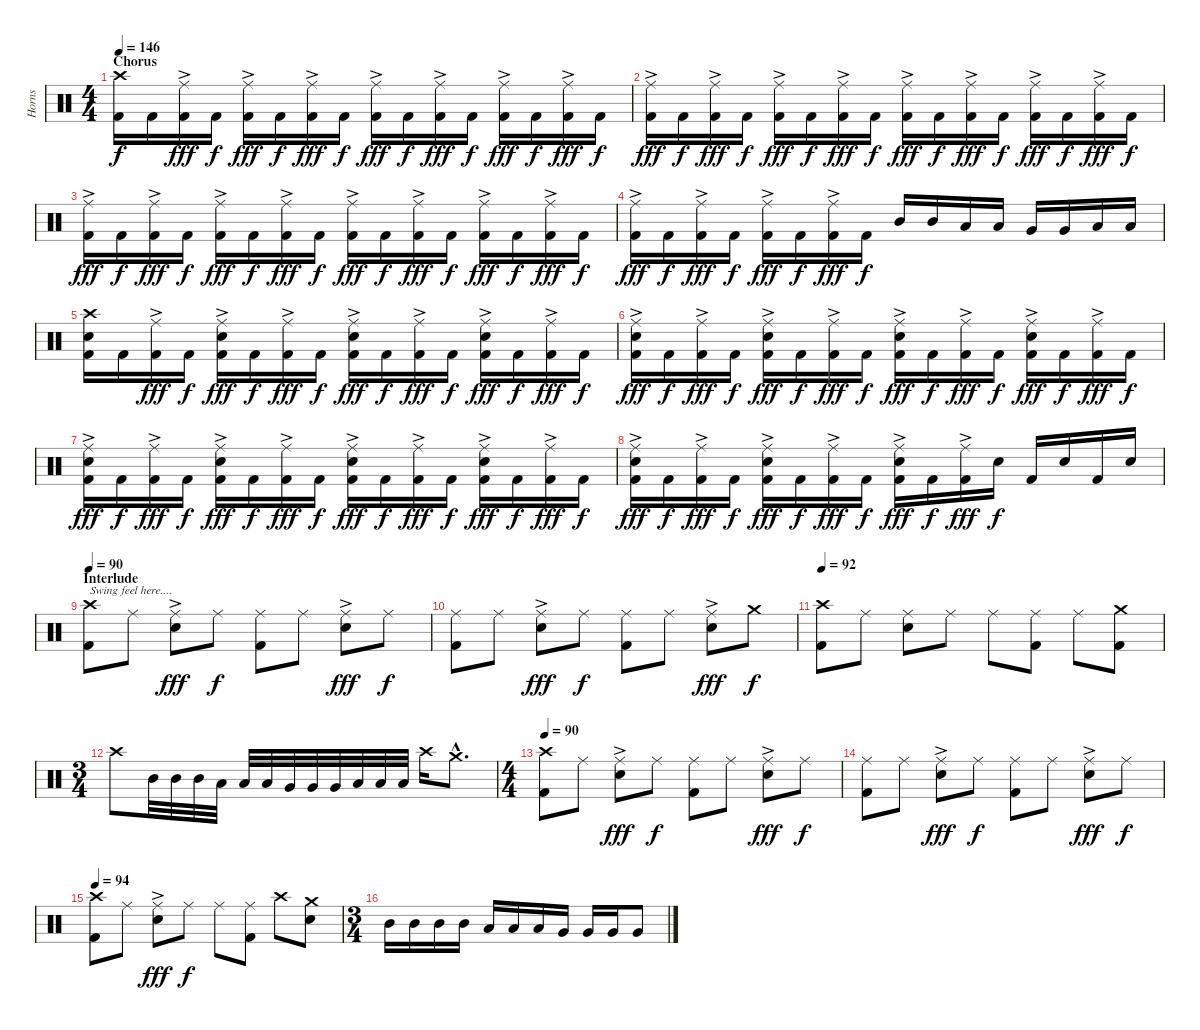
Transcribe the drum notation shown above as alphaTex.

\track ("Horns" "Horns") {instrument percussion}
\staff {score}
\articulation defaults
\ts (4 4)
\section ("" "Chorus")
\tempo 146
\clef neutral
\ks c
("Crash high (hit)" "Kick (hit) 2").16{dy f} "Kick (hit) 2".16 ("Ride (middle)"{ac} "Kick (hit) 2").16{dy fff} "Kick (hit) 2".16{dy f} ("Ride (middle)"{ac} "Kick (hit) 2").16{dy fff} "Kick (hit) 2".16{dy f} ("Ride (middle)"{ac} "Kick (hit) 2").16{dy fff} "Kick (hit) 2".16{dy f} ("Ride (middle)"{ac} "Kick (hit) 2").16{dy fff} "Kick (hit) 2".16{dy f} ("Ride (middle)"{ac} "Kick (hit) 2").16{dy fff} "Kick (hit) 2".16{dy f} ("Ride (middle)"{ac} "Kick (hit) 2").16{dy fff} "Kick (hit) 2".16{dy f} ("Ride (middle)"{ac} "Kick (hit) 2").16{dy fff} "Kick (hit) 2".16{dy f} |
("Ride (middle)"{ac} "Kick (hit) 2").16{dy fff} "Kick (hit) 2".16{dy f} ("Ride (middle)"{ac} "Kick (hit) 2").16{dy fff} "Kick (hit) 2".16{dy f} ("Ride (middle)"{ac} "Kick (hit) 2").16{dy fff} "Kick (hit) 2".16{dy f} ("Ride (middle)"{ac} "Kick (hit) 2").16{dy fff} "Kick (hit) 2".16{dy f} ("Ride (middle)"{ac} "Kick (hit) 2").16{dy fff} "Kick (hit) 2".16{dy f} ("Ride (middle)"{ac} "Kick (hit) 2").16{dy fff} "Kick (hit) 2".16{dy f} ("Ride (middle)"{ac} "Kick (hit) 2").16{dy fff} "Kick (hit) 2".16{dy f} ("Ride (middle)"{ac} "Kick (hit) 2").16{dy fff} "Kick (hit) 2".16{dy f} |
("Ride (middle)"{ac} "Kick (hit) 2").16{dy fff} "Kick (hit) 2".16{dy f} ("Ride (middle)"{ac} "Kick (hit) 2").16{dy fff} "Kick (hit) 2".16{dy f} ("Ride (middle)"{ac} "Kick (hit) 2").16{dy fff} "Kick (hit) 2".16{dy f} ("Ride (middle)"{ac} "Kick (hit) 2").16{dy fff} "Kick (hit) 2".16{dy f} ("Ride (middle)"{ac} "Kick (hit) 2").16{dy fff} "Kick (hit) 2".16{dy f} ("Ride (middle)"{ac} "Kick (hit) 2").16{dy fff} "Kick (hit) 2".16{dy f} ("Ride (middle)"{ac} "Kick (hit) 2").16{dy fff} "Kick (hit) 2".16{dy f} ("Ride (middle)"{ac} "Kick (hit) 2").16{dy fff} "Kick (hit) 2".16{dy f} |
("Ride (middle)"{ac} "Kick (hit) 2").16{dy fff} "Kick (hit) 2".16{dy f} ("Ride (middle)"{ac} "Kick (hit) 2").16{dy fff} "Kick (hit) 2".16{dy f} ("Ride (middle)"{ac} "Kick (hit) 2").16{dy fff} "Kick (hit) 2".16{dy f} ("Ride (middle)"{ac} "Kick (hit) 2").16{dy fff} "Kick (hit) 2".16{dy f} "Mid Tom (hit)".16 "Mid Tom (hit)".16 "Low Tom (hit)".16 "Low Tom (hit)".16 "Very Low Tom (hit)".16 "Very Low Tom (hit)".16 "Low Floor Tom (hit)".16 "Low Floor Tom (hit)".16 |
("Crash high (hit)" "Snare (hit) 2" "Kick (hit) 2").16 "Kick (hit) 2".16 ("Ride (middle)"{ac} "Kick (hit) 2").16{dy fff} "Kick (hit) 2".16{dy f} ("Ride (middle)"{ac} "Snare (hit) 2" "Kick (hit) 2").16{dy fff} "Kick (hit) 2".16{dy f} ("Ride (middle)"{ac} "Kick (hit) 2").16{dy fff} "Kick (hit) 2".16{dy f} ("Ride (middle)"{ac} "Snare (hit) 2" "Kick (hit) 2").16{dy fff} "Kick (hit) 2".16{dy f} ("Ride (middle)"{ac} "Kick (hit) 2").16{dy fff} "Kick (hit) 2".16{dy f} ("Ride (middle)"{ac} "Snare (hit) 2" "Kick (hit) 2").16{dy fff} "Kick (hit) 2".16{dy f} ("Ride (middle)"{ac} "Kick (hit) 2").16{dy fff} "Kick (hit) 2".16{dy f} |
("Ride (middle)"{ac} "Snare (hit) 2" "Kick (hit) 2").16{dy fff} "Kick (hit) 2".16{dy f} ("Ride (middle)"{ac} "Kick (hit) 2").16{dy fff} "Kick (hit) 2".16{dy f} ("Ride (middle)"{ac} "Snare (hit) 2" "Kick (hit) 2").16{dy fff} "Kick (hit) 2".16{dy f} ("Ride (middle)"{ac} "Kick (hit) 2").16{dy fff} "Kick (hit) 2".16{dy f} ("Ride (middle)"{ac} "Snare (hit) 2" "Kick (hit) 2").16{dy fff} "Kick (hit) 2".16{dy f} ("Ride (middle)"{ac} "Kick (hit) 2").16{dy fff} "Kick (hit) 2".16{dy f} ("Ride (middle)"{ac} "Snare (hit) 2" "Kick (hit) 2").16{dy fff} "Kick (hit) 2".16{dy f} ("Ride (middle)"{ac} "Kick (hit) 2").16{dy fff} "Kick (hit) 2".16{dy f} |
("Ride (middle)"{ac} "Snare (hit) 2" "Kick (hit) 2").16{dy fff} "Kick (hit) 2".16{dy f} ("Ride (middle)"{ac} "Kick (hit) 2").16{dy fff} "Kick (hit) 2".16{dy f} ("Ride (middle)"{ac} "Snare (hit) 2" "Kick (hit) 2").16{dy fff} "Kick (hit) 2".16{dy f} ("Ride (middle)"{ac} "Kick (hit) 2").16{dy fff} "Kick (hit) 2".16{dy f} ("Ride (middle)"{ac} "Snare (hit) 2" "Kick (hit) 2").16{dy fff} "Kick (hit) 2".16{dy f} ("Ride (middle)"{ac} "Kick (hit) 2").16{dy fff} "Kick (hit) 2".16{dy f} ("Ride (middle)"{ac} "Snare (hit) 2" "Kick (hit) 2").16{dy fff} "Kick (hit) 2".16{dy f} ("Ride (middle)"{ac} "Kick (hit) 2").16{dy fff} "Kick (hit) 2".16{dy f} |
("Ride (middle)"{ac} "Snare (hit) 2" "Kick (hit) 2").16{dy fff} "Kick (hit) 2".16{dy f} ("Ride (middle)"{ac} "Kick (hit) 2").16{dy fff} "Kick (hit) 2".16{dy f} ("Ride (middle)"{ac} "Snare (hit) 2" "Kick (hit) 2").16{dy fff} "Kick (hit) 2".16{dy f} ("Ride (middle)"{ac} "Kick (hit) 2").16{dy fff} "Kick (hit) 2".16{dy f} ("Ride (middle)"{ac} "Snare (hit) 2" "Kick (hit) 2").16{dy fff} "Kick (hit) 2".16{dy f} ("Ride (middle)"{ac} "Kick (hit) 2").16{dy fff} "Snare (hit) 2".16{dy f} "Kick (hit) 2".16 "Snare (hit) 2".16 "Kick (hit) 2".16 "Snare (hit) 2".16 |
\section ("" "Interlude")
\tempo 90
("Crash high (hit)" "Kick (hit) 2").8{txt "Swing feel here...."} "Ride (middle)".8 ("Ride (middle)"{ac} "Snare (hit) 2").8{dy fff} "Ride (middle)".8{dy f} ("Ride (middle)" "Kick (hit) 2").8 "Ride (middle)".8 ("Ride (middle)"{ac} "Snare (hit) 2").8{dy fff} "Ride (middle)".8{dy f} |
("Ride (middle)" "Kick (hit) 2").8 "Ride (middle)".8 ("Ride (middle)"{ac} "Snare (hit) 2").8{dy fff} "Ride (middle)".8{dy f} ("Ride (middle)" "Kick (hit) 2").8 "Ride (middle)".8 ("Ride (middle)"{ac} "Snare (hit) 2").8{dy fff} "Crash medium (hit)".8{dy f} |
\tempo 92
("Crash high (hit)" "Kick (hit) 2").8 "Ride (middle)".8 ("Ride (middle)" "Snare (hit) 2").8 "Ride (middle)".8 "Ride (middle)".8 ("Ride (middle)" "Kick (hit) 2").8 "Ride (middle)".8 ("Crash medium (hit)" "Kick (hit) 2").8 |
\ts (3 4)
"Crash high (hit)".8 "Mid Tom (hit)".32 "Mid Tom (hit)".32 "Mid Tom (hit)".32 "Low Tom (hit)".32 "Low Tom (hit)".32 "Low Tom (hit)".32 "Very Low Tom (hit)".32 "Very Low Tom (hit)".32 "Very Low Tom (hit)".32 "Low Floor Tom (hit)".32 "Low Floor Tom (hit)".32 "Low Floor Tom (hit)".32 "Crash high (hit)".16 "Crash medium (hit)"{hac}.8{d} |
\ts (4 4)
\tempo 90
("Crash high (hit)" "Kick (hit) 2").8 "Ride (middle)".8 ("Ride (middle)"{ac} "Snare (hit) 2").8{dy fff} "Ride (middle)".8{dy f} ("Ride (middle)" "Kick (hit) 2").8 "Ride (middle)".8 ("Ride (middle)"{ac} "Snare (hit) 2").8{dy fff} "Ride (middle)".8{dy f} |
("Ride (middle)" "Kick (hit) 2").8 "Ride (middle)".8 ("Ride (middle)"{ac} "Snare (hit) 2").8{dy fff} "Ride (middle)".8{dy f} ("Ride (middle)" "Kick (hit) 2").8 "Ride (middle)".8 ("Ride (middle)"{ac} "Snare (hit) 2").8{dy fff} "Ride (middle)".8{dy f} |
\tempo 94
("Crash high (hit)" "Kick (hit) 2").8 "Ride (middle)".8 ("Ride (middle)"{ac} "Snare (hit) 2").8{dy fff} "Ride (middle)".8{dy f} "Ride (middle)".8 ("Ride (middle)" "Kick (hit) 2").8 "Crash high (hit)".8 ("Crash medium (hit)" "Snare (hit) 2").8 |
\ts (3 4)
"Mid Tom (hit)".16 "Mid Tom (hit)".16 "Mid Tom (hit)".16 "Mid Tom (hit)".16 "Low Tom (hit)".16 "Low Tom (hit)".16 "Low Tom (hit)".16 "Very Low Tom (hit)".16 "Very Low Tom (hit)".16 "Very Low Tom (hit)".16 "Very Low Tom (hit)".8
